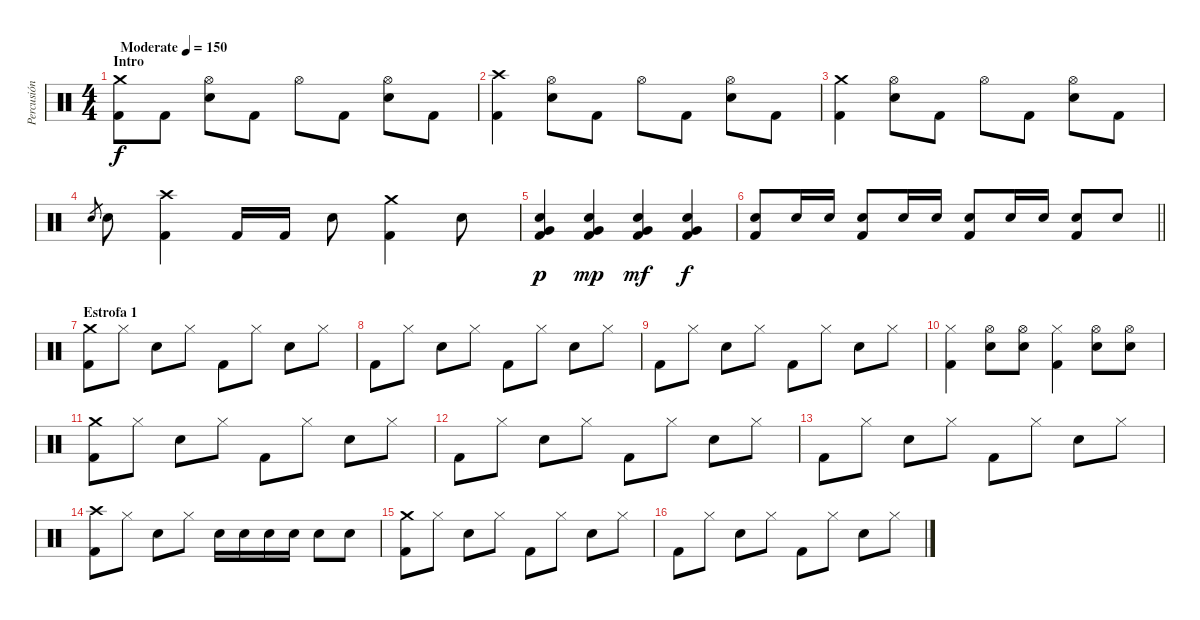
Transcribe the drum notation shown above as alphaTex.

\track ("Percusión" "Percusión") {instrument percussion}
\staff {score}
\articulation defaults
\ts (4 4)
\section ("" "Intro")
\tempo (150 "Moderate")
\clef neutral
\ks c
("Crash medium (hit)" "Kick (hit) 2").8{dy f} "Kick (hit) 2".8 ("Hi-Hat (open)" "Electric Snare (hit)").8 "Kick (hit) 2".8 "Hi-Hat (open)".8 "Kick (hit) 2".8 ("Hi-Hat (open)" "Electric Snare (hit)").8 "Kick (hit) 2".8 |
("Crash high (hit)" "Kick (hit) 2").4 ("Hi-Hat (open)" "Electric Snare (hit)").8 "Kick (hit) 2".8 "Hi-Hat (open)".8 "Kick (hit) 2".8 ("Hi-Hat (open)" "Electric Snare (hit)").8 "Kick (hit) 2".8 |
("Crash medium (hit)" "Kick (hit) 2").4 ("Hi-Hat (open)" "Electric Snare (hit)").8 "Kick (hit) 2".8 "Hi-Hat (open)".8 "Kick (hit) 2".8 ("Hi-Hat (open)" "Electric Snare (hit)").8 "Kick (hit) 2".8 |
"Electric Snare (hit)".8{gr} "Electric Snare (hit)".8 ("Crash high (hit)" "Kick (hit) 2").4 "Kick (hit) 2".16 "Kick (hit) 2".16 "Electric Snare (hit)".8 ("Crash medium (hit)" "Kick (hit) 2").4 "Electric Snare (hit)".8 |
("Very Low Tom (hit)" "Electric Snare (hit)" "Kick (hit) 2").4{dy p} ("Very Low Tom (hit)" "Electric Snare (hit)" "Kick (hit) 2").4{dy mp} ("Very Low Tom (hit)" "Electric Snare (hit)" "Kick (hit) 2").4{dy mf} ("Very Low Tom (hit)" "Electric Snare (hit)" "Kick (hit) 2").4{dy f} |
\barLineRight lightlight
("Electric Snare (hit)" "Kick (hit) 2").8 "Electric Snare (hit)".16 "Electric Snare (hit)".16 ("Electric Snare (hit)" "Kick (hit) 2").8 "Electric Snare (hit)".16 "Electric Snare (hit)".16 ("Electric Snare (hit)" "Kick (hit) 2").8 "Electric Snare (hit)".16 "Electric Snare (hit)".16 ("Electric Snare (hit)" "Kick (hit) 2").8 "Electric Snare (hit)".8 |
\section ("" "Estrofa 1")
("Crash medium (hit)" "Kick (hit) 2").8 "Hi-Hat (closed)".8 "Electric Snare (hit)".8 "Hi-Hat (closed)".8 "Kick (hit) 2".8 "Hi-Hat (closed)".8 "Electric Snare (hit)".8 "Hi-Hat (closed)".8 |
"Kick (hit) 2".8 "Hi-Hat (closed)".8 "Electric Snare (hit)".8 "Hi-Hat (closed)".8 "Kick (hit) 2".8 "Hi-Hat (closed)".8 "Electric Snare (hit)".8 "Hi-Hat (closed)".8 |
"Kick (hit) 2".8 "Hi-Hat (closed)".8 "Electric Snare (hit)".8 "Hi-Hat (closed)".8 "Kick (hit) 2".8 "Hi-Hat (closed)".8 "Electric Snare (hit)".8 "Hi-Hat (closed)".8 |
("Hi-Hat (closed)" "Kick (hit) 2").4 ("Hi-Hat (open)" "Electric Snare (hit)").8 ("Hi-Hat (open)" "Electric Snare (hit)").8 ("Hi-Hat (closed)" "Kick (hit) 2").4 ("Hi-Hat (open)" "Electric Snare (hit)").8 ("Hi-Hat (open)" "Electric Snare (hit)").8 |
("Crash medium (hit)" "Kick (hit) 2").8 "Hi-Hat (closed)".8 "Electric Snare (hit)".8 "Hi-Hat (closed)".8 "Kick (hit) 2".8 "Hi-Hat (closed)".8 "Electric Snare (hit)".8 "Hi-Hat (closed)".8 |
"Kick (hit) 2".8 "Hi-Hat (closed)".8 "Electric Snare (hit)".8 "Hi-Hat (closed)".8 "Kick (hit) 2".8 "Hi-Hat (closed)".8 "Electric Snare (hit)".8 "Hi-Hat (closed)".8 |
"Kick (hit) 2".8 "Hi-Hat (closed)".8 "Electric Snare (hit)".8 "Hi-Hat (closed)".8 "Kick (hit) 2".8 "Hi-Hat (closed)".8 "Electric Snare (hit)".8 "Hi-Hat (closed)".8 |
("Crash high (hit)" "Kick (hit) 2").8 "Hi-Hat (closed)".8 "Electric Snare (hit)".8 "Hi-Hat (closed)".8 "Electric Snare (hit)".16 "Electric Snare (hit)".16 "Electric Snare (hit)".16 "Electric Snare (hit)".16 "Electric Snare (hit)".8 "Electric Snare (hit)".8 |
("Crash medium (hit)" "Kick (hit) 2").8 "Hi-Hat (closed)".8 "Electric Snare (hit)".8 "Hi-Hat (closed)".8 "Kick (hit) 2".8 "Hi-Hat (closed)".8 "Electric Snare (hit)".8 "Hi-Hat (closed)".8 |
"Kick (hit) 2".8 "Hi-Hat (closed)".8 "Electric Snare (hit)".8 "Hi-Hat (closed)".8 "Kick (hit) 2".8 "Hi-Hat (closed)".8 "Electric Snare (hit)".8 "Hi-Hat (closed)".8
